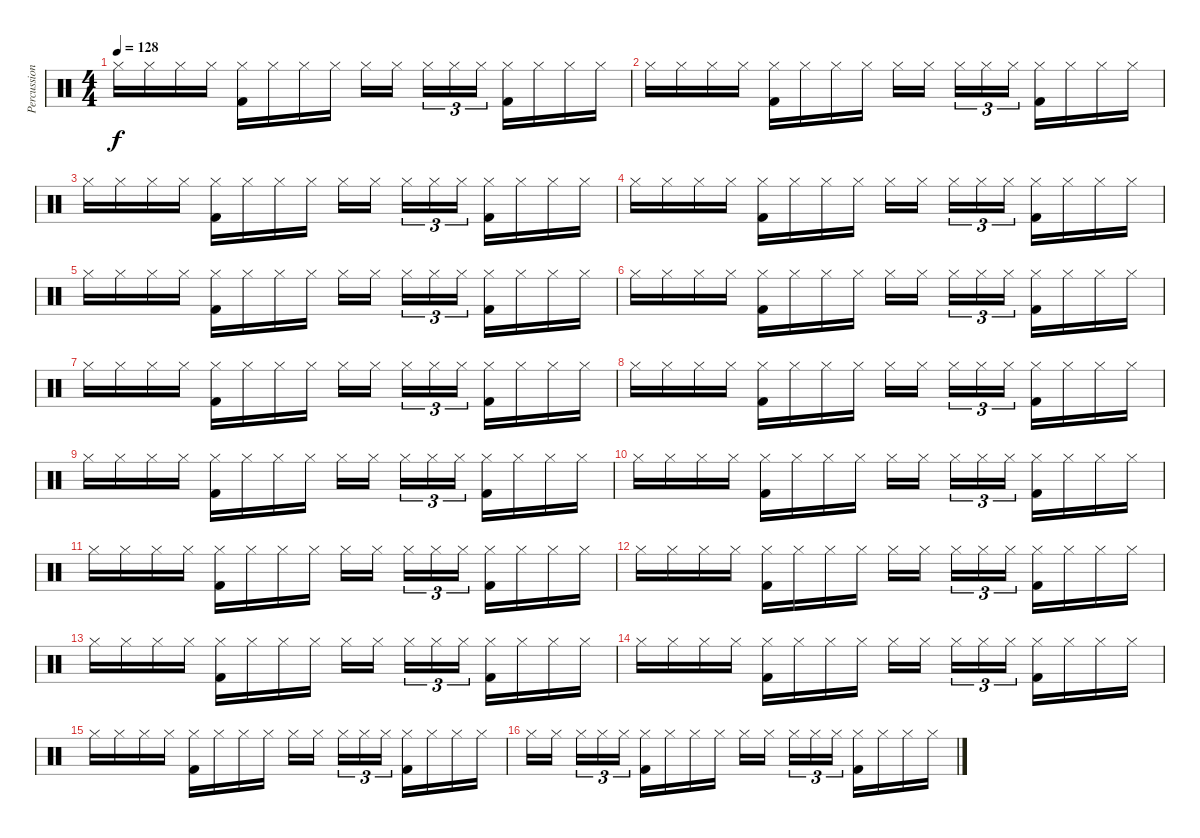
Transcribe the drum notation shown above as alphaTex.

\track ("Percussion" "Percussion") {instrument percussion}
\staff {score}
\articulation defaults
\ts (4 4)
\tempo 128
\clef neutral
\ks c "Hi-Hat (closed)".16{dy f} "Hi-Hat (closed)".16 "Hi-Hat (closed)".16 "Hi-Hat (closed)".16
("Kick (hit) 2" "Hi-Hat (closed)").16 "Hi-Hat (closed)".16 "Hi-Hat (closed)".16 "Hi-Hat (closed)".16 "Hi-Hat (closed)".16 "Hi-Hat (closed)".16 "Hi-Hat (closed)".16{tu (3 2)} "Hi-Hat (closed)".16{tu (3 2)} "Hi-Hat (closed)".16{tu (3 2)} ("Kick (hit) 2" "Hi-Hat (closed)").16 "Hi-Hat (closed)".16 "Hi-Hat (closed)".16 "Hi-Hat (closed)".16 |
"Hi-Hat (closed)".16 "Hi-Hat (closed)".16 "Hi-Hat (closed)".16 "Hi-Hat (closed)".16 ("Kick (hit) 2" "Hi-Hat (closed)").16 "Hi-Hat (closed)".16 "Hi-Hat (closed)".16 "Hi-Hat (closed)".16 "Hi-Hat (closed)".16 "Hi-Hat (closed)".16 "Hi-Hat (closed)".16{tu (3 2)} "Hi-Hat (closed)".16{tu (3 2)} "Hi-Hat (closed)".16{tu (3 2)} ("Kick (hit) 2" "Hi-Hat (closed)").16 "Hi-Hat (closed)".16 "Hi-Hat (closed)".16 "Hi-Hat (closed)".16 |
"Hi-Hat (closed)".16 "Hi-Hat (closed)".16 "Hi-Hat (closed)".16 "Hi-Hat (closed)".16 ("Kick (hit) 2" "Hi-Hat (closed)").16 "Hi-Hat (closed)".16 "Hi-Hat (closed)".16 "Hi-Hat (closed)".16 "Hi-Hat (closed)".16 "Hi-Hat (closed)".16 "Hi-Hat (closed)".16{tu (3 2)} "Hi-Hat (closed)".16{tu (3 2)} "Hi-Hat (closed)".16{tu (3 2)} ("Kick (hit) 2" "Hi-Hat (closed)").16 "Hi-Hat (closed)".16 "Hi-Hat (closed)".16 "Hi-Hat (closed)".16 |
"Hi-Hat (closed)".16 "Hi-Hat (closed)".16 "Hi-Hat (closed)".16 "Hi-Hat (closed)".16 ("Kick (hit) 2" "Hi-Hat (closed)").16 "Hi-Hat (closed)".16 "Hi-Hat (closed)".16 "Hi-Hat (closed)".16 "Hi-Hat (closed)".16 "Hi-Hat (closed)".16 "Hi-Hat (closed)".16{tu (3 2)} "Hi-Hat (closed)".16{tu (3 2)} "Hi-Hat (closed)".16{tu (3 2)} ("Kick (hit) 2" "Hi-Hat (closed)").16 "Hi-Hat (closed)".16 "Hi-Hat (closed)".16 "Hi-Hat (closed)".16 |
"Hi-Hat (closed)".16 "Hi-Hat (closed)".16 "Hi-Hat (closed)".16 "Hi-Hat (closed)".16 ("Kick (hit) 2" "Hi-Hat (closed)").16 "Hi-Hat (closed)".16 "Hi-Hat (closed)".16 "Hi-Hat (closed)".16 "Hi-Hat (closed)".16 "Hi-Hat (closed)".16 "Hi-Hat (closed)".16{tu (3 2)} "Hi-Hat (closed)".16{tu (3 2)} "Hi-Hat (closed)".16{tu (3 2)} ("Kick (hit) 2" "Hi-Hat (closed)").16 "Hi-Hat (closed)".16 "Hi-Hat (closed)".16 "Hi-Hat (closed)".16 |
"Hi-Hat (closed)".16 "Hi-Hat (closed)".16 "Hi-Hat (closed)".16 "Hi-Hat (closed)".16 ("Kick (hit) 2" "Hi-Hat (closed)").16 "Hi-Hat (closed)".16 "Hi-Hat (closed)".16 "Hi-Hat (closed)".16 "Hi-Hat (closed)".16 "Hi-Hat (closed)".16 "Hi-Hat (closed)".16{tu (3 2)} "Hi-Hat (closed)".16{tu (3 2)} "Hi-Hat (closed)".16{tu (3 2)} ("Kick (hit) 2" "Hi-Hat (closed)").16 "Hi-Hat (closed)".16 "Hi-Hat (closed)".16 "Hi-Hat (closed)".16 |
"Hi-Hat (closed)".16 "Hi-Hat (closed)".16 "Hi-Hat (closed)".16 "Hi-Hat (closed)".16 ("Kick (hit) 2" "Hi-Hat (closed)").16 "Hi-Hat (closed)".16 "Hi-Hat (closed)".16 "Hi-Hat (closed)".16 "Hi-Hat (closed)".16 "Hi-Hat (closed)".16 "Hi-Hat (closed)".16{tu (3 2)} "Hi-Hat (closed)".16{tu (3 2)} "Hi-Hat (closed)".16{tu (3 2)} ("Kick (hit) 2" "Hi-Hat (closed)").16 "Hi-Hat (closed)".16 "Hi-Hat (closed)".16 "Hi-Hat (closed)".16 |
"Hi-Hat (closed)".16 "Hi-Hat (closed)".16 "Hi-Hat (closed)".16 "Hi-Hat (closed)".16 ("Kick (hit) 2" "Hi-Hat (closed)").16 "Hi-Hat (closed)".16 "Hi-Hat (closed)".16 "Hi-Hat (closed)".16 "Hi-Hat (closed)".16 "Hi-Hat (closed)".16 "Hi-Hat (closed)".16{tu (3 2)} "Hi-Hat (closed)".16{tu (3 2)} "Hi-Hat (closed)".16{tu (3 2)} ("Kick (hit) 2" "Hi-Hat (closed)").16 "Hi-Hat (closed)".16 "Hi-Hat (closed)".16 "Hi-Hat (closed)".16 |
"Hi-Hat (closed)".16 "Hi-Hat (closed)".16 "Hi-Hat (closed)".16 "Hi-Hat (closed)".16 ("Kick (hit) 2" "Hi-Hat (closed)").16 "Hi-Hat (closed)".16 "Hi-Hat (closed)".16 "Hi-Hat (closed)".16 "Hi-Hat (closed)".16 "Hi-Hat (closed)".16 "Hi-Hat (closed)".16{tu (3 2)} "Hi-Hat (closed)".16{tu (3 2)} "Hi-Hat (closed)".16{tu (3 2)} ("Kick (hit) 2" "Hi-Hat (closed)").16 "Hi-Hat (closed)".16 "Hi-Hat (closed)".16 "Hi-Hat (closed)".16 |
"Hi-Hat (closed)".16 "Hi-Hat (closed)".16 "Hi-Hat (closed)".16 "Hi-Hat (closed)".16 ("Kick (hit) 2" "Hi-Hat (closed)").16 "Hi-Hat (closed)".16 "Hi-Hat (closed)".16 "Hi-Hat (closed)".16 "Hi-Hat (closed)".16 "Hi-Hat (closed)".16 "Hi-Hat (closed)".16{tu (3 2)} "Hi-Hat (closed)".16{tu (3 2)} "Hi-Hat (closed)".16{tu (3 2)} ("Kick (hit) 2" "Hi-Hat (closed)").16 "Hi-Hat (closed)".16 "Hi-Hat (closed)".16 "Hi-Hat (closed)".16 |
"Hi-Hat (closed)".16 "Hi-Hat (closed)".16 "Hi-Hat (closed)".16 "Hi-Hat (closed)".16 ("Kick (hit) 2" "Hi-Hat (closed)").16 "Hi-Hat (closed)".16 "Hi-Hat (closed)".16 "Hi-Hat (closed)".16 "Hi-Hat (closed)".16 "Hi-Hat (closed)".16 "Hi-Hat (closed)".16{tu (3 2)} "Hi-Hat (closed)".16{tu (3 2)} "Hi-Hat (closed)".16{tu (3 2)} ("Kick (hit) 2" "Hi-Hat (closed)").16 "Hi-Hat (closed)".16 "Hi-Hat (closed)".16 "Hi-Hat (closed)".16 |
"Hi-Hat (closed)".16 "Hi-Hat (closed)".16 "Hi-Hat (closed)".16 "Hi-Hat (closed)".16 ("Kick (hit) 2" "Hi-Hat (closed)").16 "Hi-Hat (closed)".16 "Hi-Hat (closed)".16 "Hi-Hat (closed)".16 "Hi-Hat (closed)".16 "Hi-Hat (closed)".16 "Hi-Hat (closed)".16{tu (3 2)} "Hi-Hat (closed)".16{tu (3 2)} "Hi-Hat (closed)".16{tu (3 2)} ("Kick (hit) 2" "Hi-Hat (closed)").16 "Hi-Hat (closed)".16 "Hi-Hat (closed)".16 "Hi-Hat (closed)".16 |
"Hi-Hat (closed)".16 "Hi-Hat (closed)".16 "Hi-Hat (closed)".16 "Hi-Hat (closed)".16 ("Kick (hit) 2" "Hi-Hat (closed)").16 "Hi-Hat (closed)".16 "Hi-Hat (closed)".16 "Hi-Hat (closed)".16 "Hi-Hat (closed)".16 "Hi-Hat (closed)".16 "Hi-Hat (closed)".16{tu (3 2)} "Hi-Hat (closed)".16{tu (3 2)} "Hi-Hat (closed)".16{tu (3 2)} ("Kick (hit) 2" "Hi-Hat (closed)").16 "Hi-Hat (closed)".16 "Hi-Hat (closed)".16 "Hi-Hat (closed)".16 |
"Hi-Hat (closed)".16 "Hi-Hat (closed)".16 "Hi-Hat (closed)".16 "Hi-Hat (closed)".16 ("Kick (hit) 2" "Hi-Hat (closed)").16 "Hi-Hat (closed)".16 "Hi-Hat (closed)".16 "Hi-Hat (closed)".16 "Hi-Hat (closed)".16 "Hi-Hat (closed)".16 "Hi-Hat (closed)".16{tu (3 2)} "Hi-Hat (closed)".16{tu (3 2)} "Hi-Hat (closed)".16{tu (3 2)} ("Kick (hit) 2" "Hi-Hat (closed)").16 "Hi-Hat (closed)".16 "Hi-Hat (closed)".16 "Hi-Hat (closed)".16 |
"Hi-Hat (closed)".16 "Hi-Hat (closed)".16 "Hi-Hat (closed)".16 "Hi-Hat (closed)".16 ("Kick (hit) 2" "Hi-Hat (closed)").16 "Hi-Hat (closed)".16 "Hi-Hat (closed)".16 "Hi-Hat (closed)".16 "Hi-Hat (closed)".16 "Hi-Hat (closed)".16 "Hi-Hat (closed)".16{tu (3 2)} "Hi-Hat (closed)".16{tu (3 2)} "Hi-Hat (closed)".16{tu (3 2)} ("Kick (hit) 2" "Hi-Hat (closed)").16 "Hi-Hat (closed)".16 "Hi-Hat (closed)".16 "Hi-Hat (closed)".16 |
"Hi-Hat (closed)".16 "Hi-Hat (closed)".16 "Hi-Hat (closed)".16{tu (3 2)} "Hi-Hat (closed)".16{tu (3 2)} "Hi-Hat (closed)".16{tu (3 2)} ("Kick (hit) 2" "Hi-Hat (closed)").16 "Hi-Hat (closed)".16 "Hi-Hat (closed)".16 "Hi-Hat (closed)".16 "Hi-Hat (closed)".16 "Hi-Hat (closed)".16 "Hi-Hat (closed)".16{tu (3 2)} "Hi-Hat (closed)".16{tu (3 2)} "Hi-Hat (closed)".16{tu (3 2)} ("Kick (hit) 2" "Hi-Hat (closed)").16 "Hi-Hat (closed)".16 "Hi-Hat (closed)".16 "Hi-Hat (closed)".16
